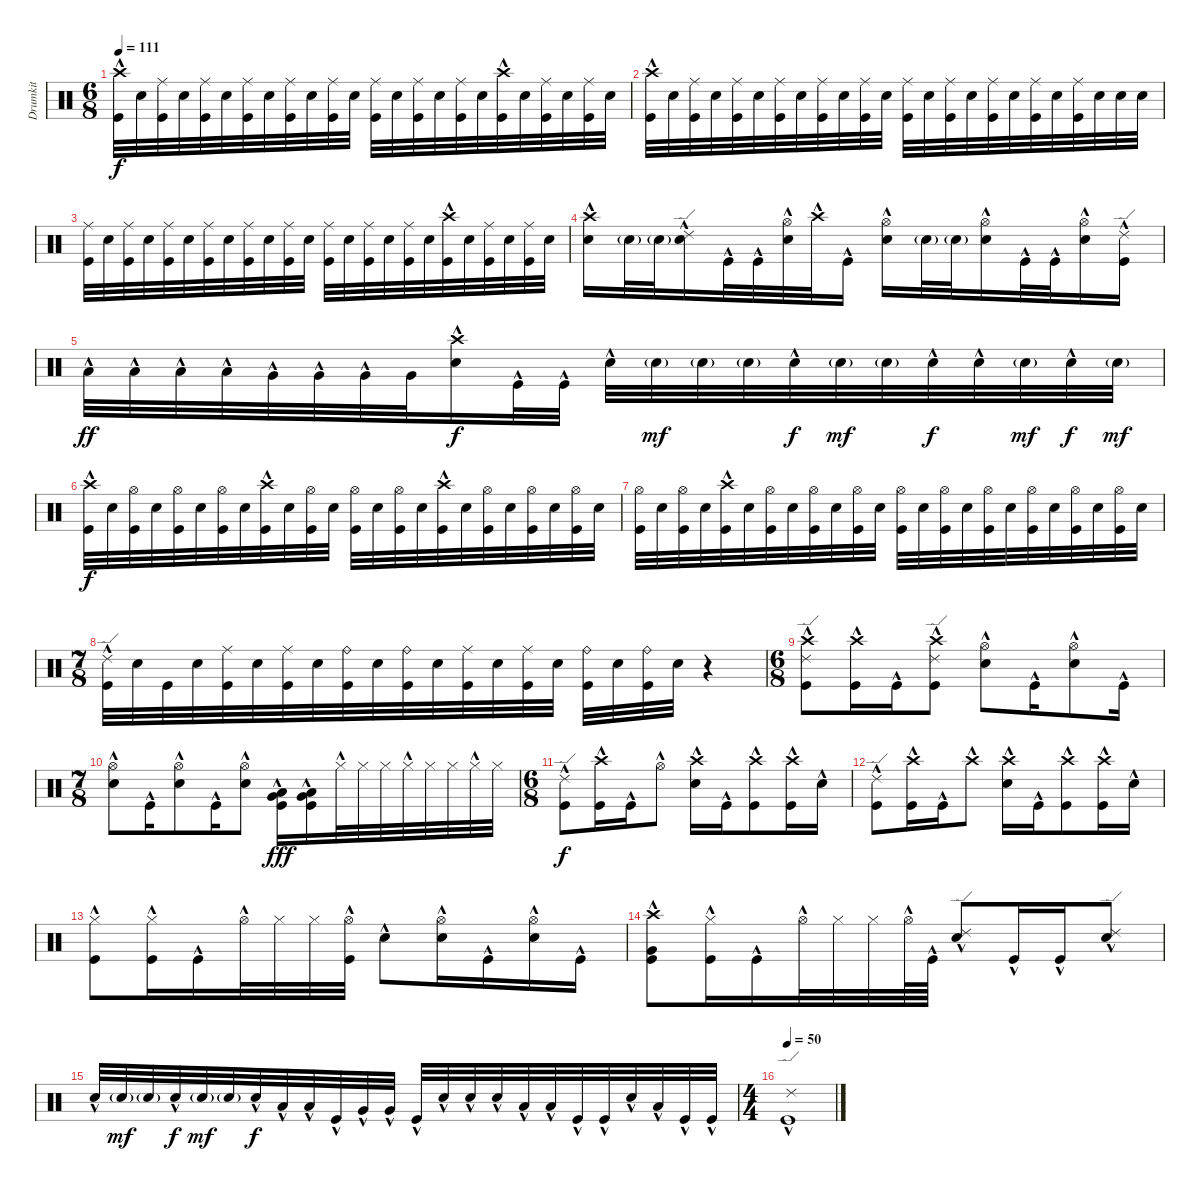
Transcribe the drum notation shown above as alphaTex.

\track ("Drumkit" "Drumkit") {instrument percussion}
\staff {score}
\articulation defaults
\ts (6 8)
\tempo 111
\clef neutral
\ks c
("Kick (hit)" "Crash high (hit)"{hac}).32{dy f} "Snare (hit) 2".32 ("Kick (hit)" "Ride (middle)").32 "Snare (hit) 2".32 ("Kick (hit)" "Ride (middle)").32 "Snare (hit) 2".32 ("Kick (hit)" "Ride (middle)").32 "Snare (hit) 2".32 ("Kick (hit)" "Ride (middle)").32 "Snare (hit) 2".32 ("Kick (hit)" "Ride (middle)").32 "Snare (hit) 2".32 ("Kick (hit)" "Ride (middle)").32 "Snare (hit) 2".32 ("Kick (hit)" "Ride (middle)").32 "Snare (hit) 2".32 ("Kick (hit)" "Ride (middle)").32 "Snare (hit) 2".32 ("Kick (hit)" "Crash high (hit)"{hac}).32 "Snare (hit) 2".32 ("Kick (hit)" "Ride (middle)").32 "Snare (hit) 2".32 ("Kick (hit)" "Ride (middle)").32 "Snare (hit) 2".32 |
("Kick (hit)" "Crash high (hit)"{hac}).32 "Snare (hit) 2".32 ("Kick (hit)" "Ride (middle)").32 "Snare (hit) 2".32 ("Kick (hit)" "Ride (middle)").32 "Snare (hit) 2".32 ("Kick (hit)" "Ride (middle)").32 "Snare (hit) 2".32 ("Kick (hit)" "Ride (middle)").32 "Snare (hit) 2".32 ("Kick (hit)" "Ride (middle)").32 "Snare (hit) 2".32 ("Kick (hit)" "Ride (middle)").32 "Snare (hit) 2".32 ("Kick (hit)" "Ride (middle)").32 "Snare (hit) 2".32 ("Kick (hit)" "Ride (middle)").32 "Snare (hit) 2".32 ("Kick (hit)" "Ride (middle)").32 "Snare (hit) 2".32 ("Kick (hit)" "Ride (middle)").32 "Snare (hit) 2".32 "Snare (hit) 2".32 "Snare (hit) 2".32 |
("Kick (hit)" "Ride (middle)").32 "Snare (hit) 2".32 ("Kick (hit)" "Ride (middle)").32 "Snare (hit) 2".32 ("Kick (hit)" "Ride (middle)").32 "Snare (hit) 2".32 ("Kick (hit)" "Ride (middle)").32 "Snare (hit) 2".32 ("Kick (hit)" "Ride (middle)").32 "Snare (hit) 2".32 ("Kick (hit)" "Ride (middle)").32 "Snare (hit) 2".32 ("Kick (hit)" "Ride (middle)").32 "Snare (hit) 2".32 ("Kick (hit)" "Ride (middle)").32 "Snare (hit) 2".32 ("Kick (hit)" "Ride (middle)").32 "Snare (hit) 2".32 ("Kick (hit)" "Crash high (hit)"{hac}).32 "Snare (hit) 2".32 ("Kick (hit)" "Ride (middle)").32 "Snare (hit) 2".32 ("Kick (hit)" "Ride (middle)").32 "Snare (hit) 2".32 |
("Snare (hit) 2"{hac} "Crash high (hit)"{hac}).16 "Snare (hit) 2"{g}.32 "Snare (hit) 2"{g}.32 ("Snare (hit) 2"{hac} "Ride (edge) 2"{hac}).16 "Kick (hit)"{hac}.32 "Kick (hit)"{hac}.32 ("Snare (hit) 2"{hac} "Hi-Hat (open)"{hac}).32 "Crash high (hit)"{hac}.32 "Kick (hit)"{hac}.16 ("Snare (hit) 2"{hac} "Hi-Hat (open)"{hac}).16 "Snare (hit) 2"{g}.32 "Snare (hit) 2"{g}.32 ("Snare (hit) 2"{hac} "Hi-Hat (open)"{hac}).16 "Kick (hit)"{hac}.32 "Kick (hit)"{hac}.32 ("Snare (hit) 2"{hac} "Hi-Hat (open)"{hac}).16 ("Kick (hit)"{hac} "Ride (edge) 2"{hac}).16 |
"Low Tom (hit)"{hac}.32{dy ff} "Low Tom (hit)"{hac}.32 "Low Tom (hit)"{hac}.32 "Low Tom (hit)"{hac}.32 "Very Low Tom (hit)"{hac}.32 "Very Low Tom (hit)"{hac}.32 "Very Low Tom (hit)"{hac}.32 "Very Low Tom (hit)".32 ("Snare (hit) 2"{hac} "Crash high (hit)"{hac}).16{dy f} "Kick (hit)"{hac}.32 "Kick (hit)"{hac}.32 "Snare (hit) 2"{hac}.32 "Snare (hit) 2"{g}.32{dy mf} "Snare (hit) 2"{g}.32 "Snare (hit) 2"{g}.32 "Snare (hit) 2"{hac}.32{dy f} "Snare (hit) 2"{g}.32{dy mf} "Snare (hit) 2"{g}.32 "Snare (hit) 2"{hac}.32{dy f} "Snare (hit) 2"{hac}.32 "Snare (hit) 2"{g}.32{dy mf} "Snare (hit) 2"{hac}.32{dy f} "Snare (hit) 2"{g}.32{dy mf} |
("Crash high (hit)"{hac} "Kick (hit)").32{dy f} "Snare (hit) 2".32 ("Hi-Hat (open)" "Kick (hit)").32 "Snare (hit) 2".32 ("Hi-Hat (open)" "Kick (hit)").32 "Snare (hit) 2".32 ("Hi-Hat (open)" "Kick (hit)").32 "Snare (hit) 2".32 ("Crash high (hit)"{hac} "Kick (hit)").32 "Snare (hit) 2".32 ("Hi-Hat (open)" "Kick (hit)").32 "Snare (hit) 2".32 ("Hi-Hat (open)" "Kick (hit)").32 "Snare (hit) 2".32 ("Hi-Hat (open)" "Kick (hit)").32 "Snare (hit) 2".32 ("Crash high (hit)"{hac} "Kick (hit)").32 "Snare (hit) 2".32 ("Hi-Hat (open)" "Kick (hit)").32 "Snare (hit) 2".32 ("Hi-Hat (open)" "Kick (hit)").32 "Snare (hit) 2".32 ("Hi-Hat (open)" "Kick (hit)").32 "Snare (hit) 2".32 |
("Hi-Hat (open)" "Kick (hit)").32 "Snare (hit) 2".32 ("Hi-Hat (open)" "Kick (hit)").32 "Snare (hit) 2".32 ("Crash high (hit)"{hac} "Kick (hit)").32 "Snare (hit) 2".32 ("Hi-Hat (open)" "Kick (hit)").32 "Snare (hit) 2".32 ("Hi-Hat (open)" "Kick (hit)").32 "Snare (hit) 2".32 ("Kick (hit)" "Hi-Hat (open)").32 "Snare (hit) 2".32 ("Hi-Hat (open)" "Kick (hit)").32 "Snare (hit) 2".32 ("Kick (hit)" "Hi-Hat (open)").32 "Snare (hit) 2".32 ("Hi-Hat (open)" "Kick (hit)").32 "Snare (hit) 2".32 ("Kick (hit)" "Hi-Hat (open)").32 "Snare (hit) 2".32 ("Hi-Hat (open)" "Kick (hit)").32 "Snare (hit) 2".32 ("Kick (hit)" "Hi-Hat (open)").32 "Snare (hit) 2".32 |
\ts (7 8)
("Kick (hit)" "Ride (edge) 2"{hac}).32 "Snare (hit) 2".32 "Kick (hit)".32 "Snare (hit) 2".32 ("Kick (hit)" "Ride (middle)").32 "Snare (hit) 2".32 ("Ride (middle)" "Kick (hit)").32 "Snare (hit) 2".32 ("Kick (hit)" "Ride (bell)").32 "Snare (hit) 2".32 ("Ride (bell)" "Kick (hit)").32 "Snare (hit) 2".32 ("Kick (hit)" "Ride (middle)").32 "Snare (hit) 2".32 ("Ride (middle)" "Kick (hit)").32 "Snare (hit) 2".32 ("Kick (hit)" "Ride (bell)").32 "Snare (hit) 2".32 ("Ride (bell)" "Kick (hit)").32 "Snare (hit) 2".32 r.4 |
\ts (6 8)
("Kick (hit)"{hac} "Crash high (hit)"{hac} "Ride (edge) 2"{hac}).8 ("Kick (hit)"{hac} "Crash high (hit)"{hac}).16 "Kick (hit)"{hac}.16 ("Kick (hit)"{hac} "Crash high (hit)"{hac} "Ride (edge) 2"{hac}).8 ("Snare (hit) 2"{hac} "Hi-Hat (open)"{hac}).8 "Kick (hit)"{hac}.16 ("Snare (hit) 2"{hac} "Hi-Hat (open)"{hac}).8 "Kick (hit)"{hac}.16 |
\ts (7 8)
("Snare (hit) 2"{hac} "Hi-Hat (open)"{hac}).8 "Kick (hit)"{hac}.16 ("Snare (hit) 2"{hac} "Hi-Hat (open)"{hac}).8 "Kick (hit)"{hac}.16 ("Snare (hit) 2"{hac} "Hi-Hat (open)"{hac}).8 ("Very Low Tom (hit)"{hac} "Low Tom (hit)"{hac} "Kick (hit)"{hac}).16{dy fff} ("Very Low Tom (hit)"{hac} "Low Tom (hit)"{hac} "Kick (hit)"{hac}).16 "Hi-Hat (closed)"{hac}.32 "Hi-Hat (closed)".32 "Hi-Hat (closed)".32 "Hi-Hat (closed)"{hac}.32 "Hi-Hat (closed)".32 "Hi-Hat (closed)".32 "Hi-Hat (closed)"{hac}.32 "Hi-Hat (closed)".32 |
\ts (6 8)
("Kick (hit)"{hac} "Ride (edge) 2"{hac}).8{dy f} ("Kick (hit)"{hac} "Crash high (hit)"{hac}).16 "Kick (hit)"{hac}.16 "Hi-Hat (open)"{hac}.8 ("Snare (hit) 2"{hac} "Crash high (hit)"{hac}).16 "Kick (hit)"{hac}.16 ("Kick (hit)"{hac} "Crash high (hit)"{hac}).8 ("Kick (hit)"{hac} "Crash high (hit)"{hac}).16 "Snare (hit) 2"{hac}.16 |
("Kick (hit)"{hac} "Ride (edge) 2"{hac}).8 ("Kick (hit)"{hac} "Crash high (hit)"{hac}).16 "Kick (hit)"{hac}.16 "Crash high (hit)"{hac}.8 ("Snare (hit) 2"{hac} "Crash high (hit)"{hac}).16 "Kick (hit)"{hac}.16 ("Kick (hit)"{hac} "Crash high (hit)"{hac}).8 ("Kick (hit)"{hac} "Crash high (hit)"{hac}).16 "Snare (hit) 2"{hac}.16 |
("Kick (hit)"{hac} "Hi-Hat (closed)"{hac}).8 ("Kick (hit)"{hac} "Hi-Hat (closed)"{hac}).16 "Kick (hit)"{hac}.16 "Hi-Hat (open)"{hac}.32 "Hi-Hat (closed)".32 "Hi-Hat (closed)".32 ("Hi-Hat (open)"{hac} "Kick (hit)"{hac}).32 "Snare (hit) 2"{hac}.8 ("Snare (hit) 2"{hac} "Hi-Hat (open)"{hac}).16 "Kick (hit)"{hac}.16 ("Snare (hit) 2"{hac} "Hi-Hat (open)"{hac}).16 "Kick (hit)"{hac}.16 |
("Kick (hit)"{hac} "Crash high (hit)"{hac} "Very Low Tom (hit)"{hac}).8 ("Kick (hit)"{hac} "Hi-Hat (closed)"{hac}).16 "Kick (hit)"{hac}.16 "Hi-Hat (open)"{hac}.32 "Hi-Hat (closed)".32 "Hi-Hat (closed)".32 "Hi-Hat (open)"{hac}.64 "Kick (hit)"{hac}.64 ("Snare (hit) 2"{hac} "Ride (edge) 2"{hac}).8 "Kick (hit)"{hac}.16 "Kick (hit)"{hac}.16 ("Snare (hit) 2"{hac} "Ride (edge) 2"{hac}).8 |
"Snare (hit) 2"{hac}.32 "Snare (hit) 2"{g}.32{dy mf} "Snare (hit) 2"{g}.32 "Snare (hit) 2"{hac}.32{dy f} "Snare (hit) 2"{g}.32{dy mf} "Snare (hit) 2"{g}.32 "Snare (hit) 2"{hac}.32{dy f} "Low Tom (hit)"{hac}.32 "Low Tom (hit)"{hac}.32 "Kick (hit)"{hac}.32 "Very Low Tom (hit)"{hac}.32 "Very Low Tom (hit)"{hac}.32 "Kick (hit)"{hac}.32 "Snare (hit) 2"{hac}.32 "Snare (hit) 2"{hac}.32 "Snare (hit) 2"{hac}.32 "Low Tom (hit)"{hac}.32 "Low Tom (hit)"{hac}.32 "Kick (hit)"{hac}.32 "Kick (hit)"{hac}.32 "Snare (hit) 2"{hac}.32 "Low Tom (hit)"{hac}.32 "Kick (hit)"{hac}.32 "Kick (hit)"{hac}.32 |
\ts (4 4)
\tempo 50
("Ride (edge) 2"{hac} "Kick (hit)"{hac}).1
